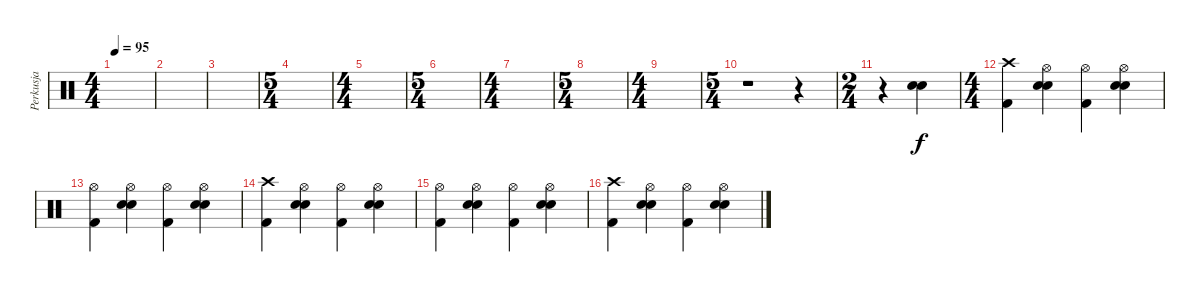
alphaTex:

\track ("Perkusja" "Perkusja") {instrument percussion}
\staff {score}
\articulation defaults
\ts (4 4)
\tempo 95
\clef neutral
\ks c
|
|
|
\ts (5 4)
|
\ts (4 4)
|
\ts (5 4)
|
\ts (4 4)
|
\ts (5 4)
|
\ts (4 4)
|
\ts (5 4)
r.1 r.4 |
\ts (2 4)
r.4 ("Electric Snare (hit)" "Snare (hit) 2").4 |
\ts (4 4)
("Crash high (hit)" "Kick (hit) 2").4 ("Hi-Hat (open)" "Electric Snare (hit)" "Snare (hit) 2").4 ("Hi-Hat (open)" "Kick (hit) 2").4 ("Hi-Hat (open)" "Electric Snare (hit)" "Snare (hit) 2").4 |
("Hi-Hat (open)" "Kick (hit) 2").4 ("Hi-Hat (open)" "Electric Snare (hit)" "Snare (hit) 2").4 ("Hi-Hat (open)" "Kick (hit) 2").4 ("Hi-Hat (open)" "Electric Snare (hit)" "Snare (hit) 2").4 |
("Crash high (hit)" "Kick (hit) 2").4 ("Hi-Hat (open)" "Electric Snare (hit)" "Snare (hit) 2").4 ("Hi-Hat (open)" "Kick (hit) 2").4 ("Hi-Hat (open)" "Electric Snare (hit)" "Snare (hit) 2").4 |
("Hi-Hat (open)" "Kick (hit) 2").4 ("Hi-Hat (open)" "Electric Snare (hit)" "Snare (hit) 2").4 ("Hi-Hat (open)" "Kick (hit) 2").4 ("Hi-Hat (open)" "Electric Snare (hit)" "Snare (hit) 2").4 |
("Crash high (hit)" "Kick (hit) 2").4 ("Hi-Hat (open)" "Electric Snare (hit)" "Snare (hit) 2").4 ("Hi-Hat (open)" "Kick (hit) 2").4 ("Hi-Hat (open)" "Electric Snare (hit)" "Snare (hit) 2").4
